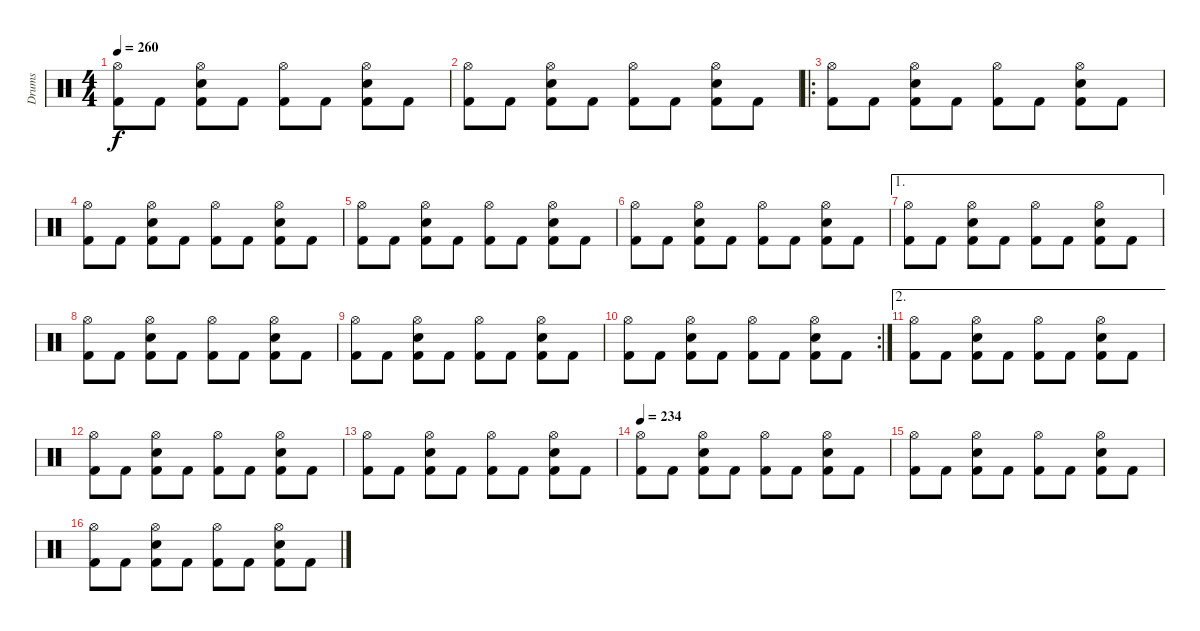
\track ("Drums" "Drums") {instrument percussion}
\staff {score}
\articulation defaults
\ts (4 4)
\tempo 260
\clef neutral
\ks c
("Hi-Hat (open)" "Kick (hit) 2").8{dy f} "Kick (hit) 2".8 ("Hi-Hat (open)" "Snare (hit) 2" "Kick (hit) 2").8 "Kick (hit) 2".8 ("Hi-Hat (open)" "Kick (hit) 2").8 "Kick (hit) 2".8 ("Hi-Hat (open)" "Snare (hit) 2" "Kick (hit) 2").8 "Kick (hit) 2".8 |
("Hi-Hat (open)" "Kick (hit) 2").8 "Kick (hit) 2".8 ("Hi-Hat (open)" "Snare (hit) 2" "Kick (hit) 2").8 "Kick (hit) 2".8 ("Hi-Hat (open)" "Kick (hit) 2").8 "Kick (hit) 2".8 ("Hi-Hat (open)" "Snare (hit) 2" "Kick (hit) 2").8 "Kick (hit) 2".8 |
\ro
("Hi-Hat (open)" "Kick (hit) 2").8 "Kick (hit) 2".8 ("Hi-Hat (open)" "Snare (hit) 2" "Kick (hit) 2").8 "Kick (hit) 2".8 ("Hi-Hat (open)" "Kick (hit) 2").8 "Kick (hit) 2".8 ("Hi-Hat (open)" "Snare (hit) 2" "Kick (hit) 2").8 "Kick (hit) 2".8 |
("Hi-Hat (open)" "Kick (hit) 2").8 "Kick (hit) 2".8 ("Hi-Hat (open)" "Snare (hit) 2" "Kick (hit) 2").8 "Kick (hit) 2".8 ("Hi-Hat (open)" "Kick (hit) 2").8 "Kick (hit) 2".8 ("Hi-Hat (open)" "Snare (hit) 2" "Kick (hit) 2").8 "Kick (hit) 2".8 |
("Hi-Hat (open)" "Kick (hit) 2").8 "Kick (hit) 2".8 ("Hi-Hat (open)" "Snare (hit) 2" "Kick (hit) 2").8 "Kick (hit) 2".8 ("Hi-Hat (open)" "Kick (hit) 2").8 "Kick (hit) 2".8 ("Hi-Hat (open)" "Snare (hit) 2" "Kick (hit) 2").8 "Kick (hit) 2".8 |
("Hi-Hat (open)" "Kick (hit) 2").8 "Kick (hit) 2".8 ("Hi-Hat (open)" "Snare (hit) 2" "Kick (hit) 2").8 "Kick (hit) 2".8 ("Hi-Hat (open)" "Kick (hit) 2").8 "Kick (hit) 2".8 ("Hi-Hat (open)" "Snare (hit) 2" "Kick (hit) 2").8 "Kick (hit) 2".8 |
\ae 1
("Hi-Hat (open)" "Kick (hit) 2").8 "Kick (hit) 2".8 ("Hi-Hat (open)" "Snare (hit) 2" "Kick (hit) 2").8 "Kick (hit) 2".8 ("Hi-Hat (open)" "Kick (hit) 2").8 "Kick (hit) 2".8 ("Hi-Hat (open)" "Snare (hit) 2" "Kick (hit) 2").8 "Kick (hit) 2".8 |
("Hi-Hat (open)" "Kick (hit) 2").8 "Kick (hit) 2".8 ("Hi-Hat (open)" "Snare (hit) 2" "Kick (hit) 2").8 "Kick (hit) 2".8 ("Hi-Hat (open)" "Kick (hit) 2").8 "Kick (hit) 2".8 ("Hi-Hat (open)" "Snare (hit) 2" "Kick (hit) 2").8 "Kick (hit) 2".8 |
("Hi-Hat (open)" "Kick (hit) 2").8 "Kick (hit) 2".8 ("Hi-Hat (open)" "Snare (hit) 2" "Kick (hit) 2").8 "Kick (hit) 2".8 ("Hi-Hat (open)" "Kick (hit) 2").8 "Kick (hit) 2".8 ("Hi-Hat (open)" "Snare (hit) 2" "Kick (hit) 2").8 "Kick (hit) 2".8 |
\rc 2
("Hi-Hat (open)" "Kick (hit) 2").8 "Kick (hit) 2".8 ("Hi-Hat (open)" "Snare (hit) 2" "Kick (hit) 2").8 "Kick (hit) 2".8 ("Hi-Hat (open)" "Kick (hit) 2").8 "Kick (hit) 2".8 ("Hi-Hat (open)" "Snare (hit) 2" "Kick (hit) 2").8 "Kick (hit) 2".8 |
\ae 2
("Hi-Hat (open)" "Kick (hit) 2").8 "Kick (hit) 2".8 ("Hi-Hat (open)" "Snare (hit) 2" "Kick (hit) 2").8 "Kick (hit) 2".8 ("Hi-Hat (open)" "Kick (hit) 2").8 "Kick (hit) 2".8 ("Hi-Hat (open)" "Snare (hit) 2" "Kick (hit) 2").8 "Kick (hit) 2".8 |
("Hi-Hat (open)" "Kick (hit) 2").8 "Kick (hit) 2".8 ("Hi-Hat (open)" "Snare (hit) 2" "Kick (hit) 2").8 "Kick (hit) 2".8 ("Hi-Hat (open)" "Kick (hit) 2").8 "Kick (hit) 2".8 ("Hi-Hat (open)" "Snare (hit) 2" "Kick (hit) 2").8 "Kick (hit) 2".8 |
("Hi-Hat (open)" "Kick (hit) 2").8 "Kick (hit) 2".8 ("Hi-Hat (open)" "Snare (hit) 2" "Kick (hit) 2").8 "Kick (hit) 2".8 ("Hi-Hat (open)" "Kick (hit) 2").8 "Kick (hit) 2".8 ("Hi-Hat (open)" "Snare (hit) 2" "Kick (hit) 2").8 "Kick (hit) 2".8 |
\tempo 234
("Hi-Hat (open)" "Kick (hit) 2").8 "Kick (hit) 2".8 ("Hi-Hat (open)" "Snare (hit) 2" "Kick (hit) 2").8 "Kick (hit) 2".8 ("Hi-Hat (open)" "Kick (hit) 2").8 "Kick (hit) 2".8 ("Hi-Hat (open)" "Snare (hit) 2" "Kick (hit) 2").8 "Kick (hit) 2".8 |
("Hi-Hat (open)" "Kick (hit) 2").8 "Kick (hit) 2".8 ("Hi-Hat (open)" "Snare (hit) 2" "Kick (hit) 2").8 "Kick (hit) 2".8 ("Hi-Hat (open)" "Kick (hit) 2").8 "Kick (hit) 2".8 ("Hi-Hat (open)" "Snare (hit) 2" "Kick (hit) 2").8 "Kick (hit) 2".8 |
("Hi-Hat (open)" "Kick (hit) 2").8 "Kick (hit) 2".8 ("Hi-Hat (open)" "Snare (hit) 2" "Kick (hit) 2").8 "Kick (hit) 2".8 ("Hi-Hat (open)" "Kick (hit) 2").8 "Kick (hit) 2".8 ("Hi-Hat (open)" "Snare (hit) 2" "Kick (hit) 2").8 "Kick (hit) 2".8
